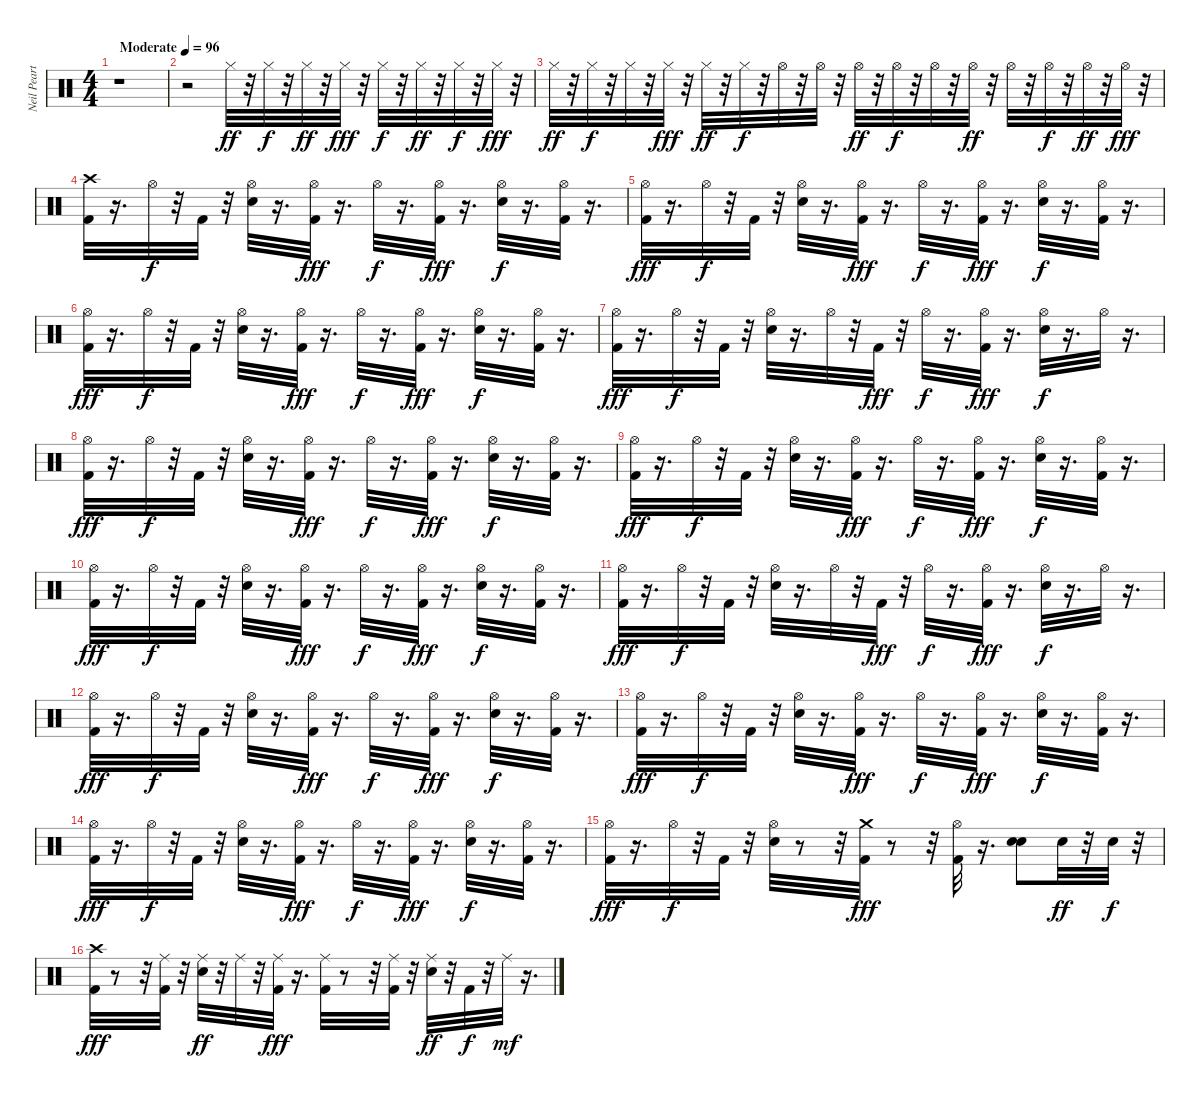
\track ("Neil Peart" "Neil Peart") {instrument percussion}
\staff {score}
\articulation defaults
\ts (4 4)
\tempo (96 "Moderate")
\clef neutral
\ks c
r.1{dy ff} |
r.2 "Hi-Hat (closed)".32 r.32 "Hi-Hat (closed)".32{dy f} r.32 "Hi-Hat (closed)".32{dy ff} r.32 "Hi-Hat (closed)".32{dy fff} r.32 "Hi-Hat (closed)".32{dy f} r.32 "Hi-Hat (closed)".32{dy ff} r.32 "Hi-Hat (closed)".32{dy f} r.32 "Hi-Hat (closed)".32{dy fff} r.32 |
"Hi-Hat (closed)".32{dy ff} r.32 "Hi-Hat (closed)".32{dy f} r.32 "Hi-Hat (closed)".32 r.32 "Hi-Hat (closed)".32{dy fff} r.32 "Hi-Hat (closed)".32{dy ff} r.32 "Hi-Hat (closed)".32{dy f} r.32 "Hi-Hat (open)".32 r.32 "Hi-Hat (open)".32 r.32 "Hi-Hat (open)".32{dy ff} r.32 "Hi-Hat (open)".32{dy f} r.32 "Hi-Hat (open)".32 r.32 "Hi-Hat (open)".32{dy ff} r.32 "Hi-Hat (open)".32 r.32 "Hi-Hat (open)".32{dy f} r.32 "Hi-Hat (open)".32{dy ff} r.32 "Hi-Hat (open)".32{dy fff} r.32 |
("Crash high (hit)" "Kick (hit) 2").32 r.16{d} "Hi-Hat (open)".32{dy f} r.32 "Kick (hit) 2".32 r.32 ("Hi-Hat (open)" "Snare (hit) 2").32 r.16{d} ("Hi-Hat (open)" "Kick (hit) 2").32{dy fff} r.16{d} "Hi-Hat (open)".32{dy f} r.16{d} ("Hi-Hat (open)" "Kick (hit) 2").32{dy fff} r.16{d} ("Hi-Hat (open)" "Snare (hit) 2").32{dy f} r.16{d} ("Hi-Hat (open)" "Kick (hit) 2").32 r.16{d} |
("Hi-Hat (open)" "Kick (hit) 2").32{dy fff} r.16{d} "Hi-Hat (open)".32{dy f} r.32 "Kick (hit) 2".32 r.32 ("Hi-Hat (open)" "Snare (hit) 2").32 r.16{d} ("Hi-Hat (open)" "Kick (hit) 2").32{dy fff} r.16{d} "Hi-Hat (open)".32{dy f} r.16{d} ("Hi-Hat (open)" "Kick (hit) 2").32{dy fff} r.16{d} ("Hi-Hat (open)" "Snare (hit) 2").32{dy f} r.16{d} ("Hi-Hat (open)" "Kick (hit) 2").32 r.16{d} |
("Hi-Hat (open)" "Kick (hit) 2").32{dy fff} r.16{d} "Hi-Hat (open)".32{dy f} r.32 "Kick (hit) 2".32 r.32 ("Hi-Hat (open)" "Snare (hit) 2").32 r.16{d} ("Hi-Hat (open)" "Kick (hit) 2").32{dy fff} r.16{d} "Hi-Hat (open)".32{dy f} r.16{d} ("Hi-Hat (open)" "Kick (hit) 2").32{dy fff} r.16{d} ("Hi-Hat (open)" "Snare (hit) 2").32{dy f} r.16{d} ("Hi-Hat (open)" "Kick (hit) 2").32 r.16{d} |
("Hi-Hat (open)" "Kick (hit) 2").32{dy fff} r.16{d} "Hi-Hat (open)".32{dy f} r.32 "Kick (hit) 2".32 r.32 ("Hi-Hat (open)" "Snare (hit) 2").32 r.16{d} "Hi-Hat (open)".32 r.32 "Kick (hit) 2".32{dy fff} r.32 "Hi-Hat (open)".32{dy f} r.16{d} ("Hi-Hat (open)" "Kick (hit) 2").32{dy fff} r.16{d} ("Hi-Hat (open)" "Snare (hit) 2").32{dy f} r.16{d} "Hi-Hat (open)".32 r.16{d} |
("Hi-Hat (open)" "Kick (hit) 2").32{dy fff} r.16{d} "Hi-Hat (open)".32{dy f} r.32 "Kick (hit) 2".32 r.32 ("Hi-Hat (open)" "Snare (hit) 2").32 r.16{d} ("Hi-Hat (open)" "Kick (hit) 2").32{dy fff} r.16{d} "Hi-Hat (open)".32{dy f} r.16{d} ("Hi-Hat (open)" "Kick (hit) 2").32{dy fff} r.16{d} ("Hi-Hat (open)" "Snare (hit) 2").32{dy f} r.16{d} ("Hi-Hat (open)" "Kick (hit) 2").32 r.16{d} |
("Hi-Hat (open)" "Kick (hit) 2").32{dy fff} r.16{d} "Hi-Hat (open)".32{dy f} r.32 "Kick (hit) 2".32 r.32 ("Hi-Hat (open)" "Snare (hit) 2").32 r.16{d} ("Hi-Hat (open)" "Kick (hit) 2").32{dy fff} r.16{d} "Hi-Hat (open)".32{dy f} r.16{d} ("Hi-Hat (open)" "Kick (hit) 2").32{dy fff} r.16{d} ("Hi-Hat (open)" "Snare (hit) 2").32{dy f} r.16{d} ("Hi-Hat (open)" "Kick (hit) 2").32 r.16{d} |
("Hi-Hat (open)" "Kick (hit) 2").32{dy fff} r.16{d} "Hi-Hat (open)".32{dy f} r.32 "Kick (hit) 2".32 r.32 ("Hi-Hat (open)" "Snare (hit) 2").32 r.16{d} ("Hi-Hat (open)" "Kick (hit) 2").32{dy fff} r.16{d} "Hi-Hat (open)".32{dy f} r.16{d} ("Hi-Hat (open)" "Kick (hit) 2").32{dy fff} r.16{d} ("Hi-Hat (open)" "Snare (hit) 2").32{dy f} r.16{d} ("Hi-Hat (open)" "Kick (hit) 2").32 r.16{d} |
("Hi-Hat (open)" "Kick (hit) 2").32{dy fff} r.16{d} "Hi-Hat (open)".32{dy f} r.32 "Kick (hit) 2".32 r.32 ("Hi-Hat (open)" "Snare (hit) 2").32 r.16{d} "Hi-Hat (open)".32 r.32 "Kick (hit) 2".32{dy fff} r.32 "Hi-Hat (open)".32{dy f} r.16{d} ("Hi-Hat (open)" "Kick (hit) 2").32{dy fff} r.16{d} ("Hi-Hat (open)" "Snare (hit) 2").32{dy f} r.16{d} "Hi-Hat (open)".32 r.16{d} |
("Hi-Hat (open)" "Kick (hit) 2").32{dy fff} r.16{d} "Hi-Hat (open)".32{dy f} r.32 "Kick (hit) 2".32 r.32 ("Hi-Hat (open)" "Snare (hit) 2").32 r.16{d} ("Hi-Hat (open)" "Kick (hit) 2").32{dy fff} r.16{d} "Hi-Hat (open)".32{dy f} r.16{d} ("Hi-Hat (open)" "Kick (hit) 2").32{dy fff} r.16{d} ("Hi-Hat (open)" "Snare (hit) 2").32{dy f} r.16{d} ("Hi-Hat (open)" "Kick (hit) 2").32 r.16{d} |
("Hi-Hat (open)" "Kick (hit) 2").32{dy fff} r.16{d} "Hi-Hat (open)".32{dy f} r.32 "Kick (hit) 2".32 r.32 ("Hi-Hat (open)" "Snare (hit) 2").32 r.16{d} ("Hi-Hat (open)" "Kick (hit) 2").32{dy fff} r.16{d} "Hi-Hat (open)".32{dy f} r.16{d} ("Hi-Hat (open)" "Kick (hit) 2").32{dy fff} r.16{d} ("Hi-Hat (open)" "Snare (hit) 2").32{dy f} r.16{d} ("Hi-Hat (open)" "Kick (hit) 2").32 r.16{d} |
("Hi-Hat (open)" "Kick (hit) 2").32{dy fff} r.16{d} "Hi-Hat (open)".32{dy f} r.32 "Kick (hit) 2".32 r.32 ("Hi-Hat (open)" "Snare (hit) 2").32 r.16{d} ("Hi-Hat (open)" "Kick (hit) 2").32{dy fff} r.16{d} "Hi-Hat (open)".32{dy f} r.16{d} ("Hi-Hat (open)" "Kick (hit) 2").32{dy fff} r.16{d} ("Hi-Hat (open)" "Snare (hit) 2").32{dy f} r.16{d} ("Hi-Hat (open)" "Kick (hit) 2").32 r.16{d} |
("Hi-Hat (open)" "Kick (hit) 2").32{dy fff} r.16{d} "Hi-Hat (open)".32{dy f} r.32 "Kick (hit) 2".32 r.32 ("Hi-Hat (open)" "Snare (hit) 2").32 r.8 r.32 ("Crash medium (hit)" "Kick (hit) 2").32{dy fff} r.8 r.32 ("Hi-Hat (open)" "Kick (hit) 2").32 r.16{d} ("Snare (hit) 2" "Snare (hit) 2").8 "Snare (hit) 2".32{dy ff} r.32 "Snare (hit) 2".32{dy f} r.32 |
("Crash high (hit)" "Kick (hit) 2").32{dy fff} r.8 r.32 ("Ride (middle)" "Kick (hit) 2").32 r.32 ("Ride (middle)" "Snare (hit) 2").32{dy ff} r.32 "Ride (middle)".32 r.32 ("Ride (middle)" "Kick (hit) 2").32{dy fff} r.16{d} ("Ride (middle)" "Kick (hit) 2").32 r.8 r.32 ("Ride (middle)" "Kick (hit) 2").32 r.32 ("Ride (middle)" "Snare (hit) 2").32{dy ff} r.32 "Kick (hit) 2".32{dy f} r.32 "Ride (middle)".32{dy mf} r.16{d}
